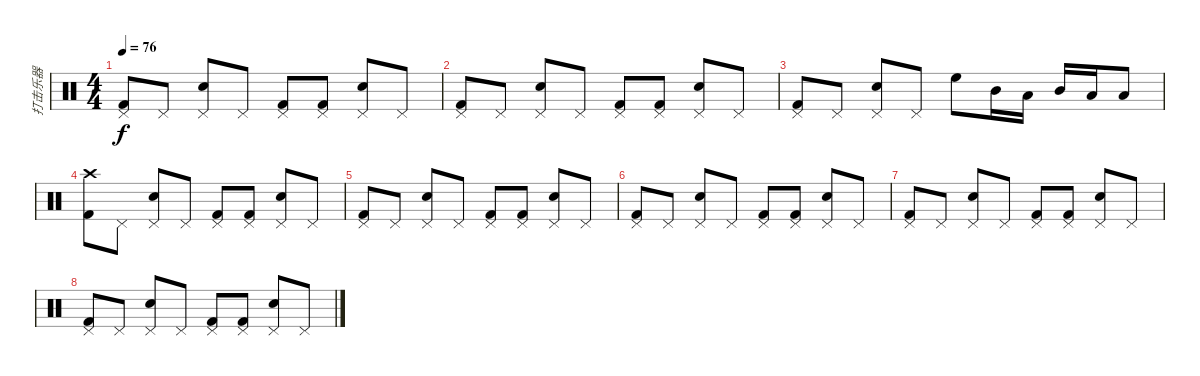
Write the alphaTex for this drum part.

\track ("打击乐器" "打击乐器") {instrument percussion}
\staff {score}
\articulation defaults
\ts (4 4)
\tempo 76
\clef neutral
\ks c
("Pedal Hi-Hat (hit)" "Kick (hit) 2").8{dy f} "Pedal Hi-Hat (hit)".8 ("Pedal Hi-Hat (hit)" "Snare (hit) 2").8 "Pedal Hi-Hat (hit)".8 ("Pedal Hi-Hat (hit)" "Kick (hit) 2").8 ("Pedal Hi-Hat (hit)" "Kick (hit) 2").8 ("Pedal Hi-Hat (hit)" "Snare (hit) 2").8 "Pedal Hi-Hat (hit)".8 |
("Pedal Hi-Hat (hit)" "Kick (hit) 2").8 "Pedal Hi-Hat (hit)".8 ("Pedal Hi-Hat (hit)" "Snare (hit) 2").8 "Pedal Hi-Hat (hit)".8 ("Pedal Hi-Hat (hit)" "Kick (hit) 2").8 ("Pedal Hi-Hat (hit)" "Kick (hit) 2").8 ("Pedal Hi-Hat (hit)" "Snare (hit) 2").8 "Pedal Hi-Hat (hit)".8 |
("Pedal Hi-Hat (hit)" "Kick (hit) 2").8 "Pedal Hi-Hat (hit)".8 ("Pedal Hi-Hat (hit)" "Snare (hit) 2").8 "Pedal Hi-Hat (hit)".8 "High Floor Tom (hit)".8 "Mid Tom (hit)".16 "Low Tom (hit)".16 "Mid Tom (hit)".16 "Low Tom (hit)".16 "Low Floor Tom (hit)".8 |
("Crash high (hit)" "Kick (hit) 2").8 "Pedal Hi-Hat (hit)".8 ("Pedal Hi-Hat (hit)" "Snare (hit) 2").8 "Pedal Hi-Hat (hit)".8 ("Pedal Hi-Hat (hit)" "Kick (hit) 2").8 ("Pedal Hi-Hat (hit)" "Kick (hit) 2").8 ("Pedal Hi-Hat (hit)" "Snare (hit) 2").8 "Pedal Hi-Hat (hit)".8 |
("Pedal Hi-Hat (hit)" "Kick (hit) 2").8 "Pedal Hi-Hat (hit)".8 ("Pedal Hi-Hat (hit)" "Snare (hit) 2").8 "Pedal Hi-Hat (hit)".8 ("Pedal Hi-Hat (hit)" "Kick (hit) 2").8 ("Pedal Hi-Hat (hit)" "Kick (hit) 2").8 ("Pedal Hi-Hat (hit)" "Snare (hit) 2").8 "Pedal Hi-Hat (hit)".8 |
("Pedal Hi-Hat (hit)" "Kick (hit) 2").8 "Pedal Hi-Hat (hit)".8 ("Pedal Hi-Hat (hit)" "Snare (hit) 2").8 "Pedal Hi-Hat (hit)".8 ("Pedal Hi-Hat (hit)" "Kick (hit) 2").8 ("Pedal Hi-Hat (hit)" "Kick (hit) 2").8 ("Pedal Hi-Hat (hit)" "Snare (hit) 2").8 "Pedal Hi-Hat (hit)".8 |
("Pedal Hi-Hat (hit)" "Kick (hit) 2").8 "Pedal Hi-Hat (hit)".8 ("Pedal Hi-Hat (hit)" "Snare (hit) 2").8 "Pedal Hi-Hat (hit)".8 ("Pedal Hi-Hat (hit)" "Kick (hit) 2").8 ("Pedal Hi-Hat (hit)" "Kick (hit) 2").8 ("Pedal Hi-Hat (hit)" "Snare (hit) 2").8 "Pedal Hi-Hat (hit)".8 |
("Pedal Hi-Hat (hit)" "Kick (hit) 2").8 "Pedal Hi-Hat (hit)".8 ("Pedal Hi-Hat (hit)" "Snare (hit) 2").8 "Pedal Hi-Hat (hit)".8 ("Pedal Hi-Hat (hit)" "Kick (hit) 2").8 ("Pedal Hi-Hat (hit)" "Kick (hit) 2").8 ("Pedal Hi-Hat (hit)" "Snare (hit) 2").8 "Pedal Hi-Hat (hit)".8
